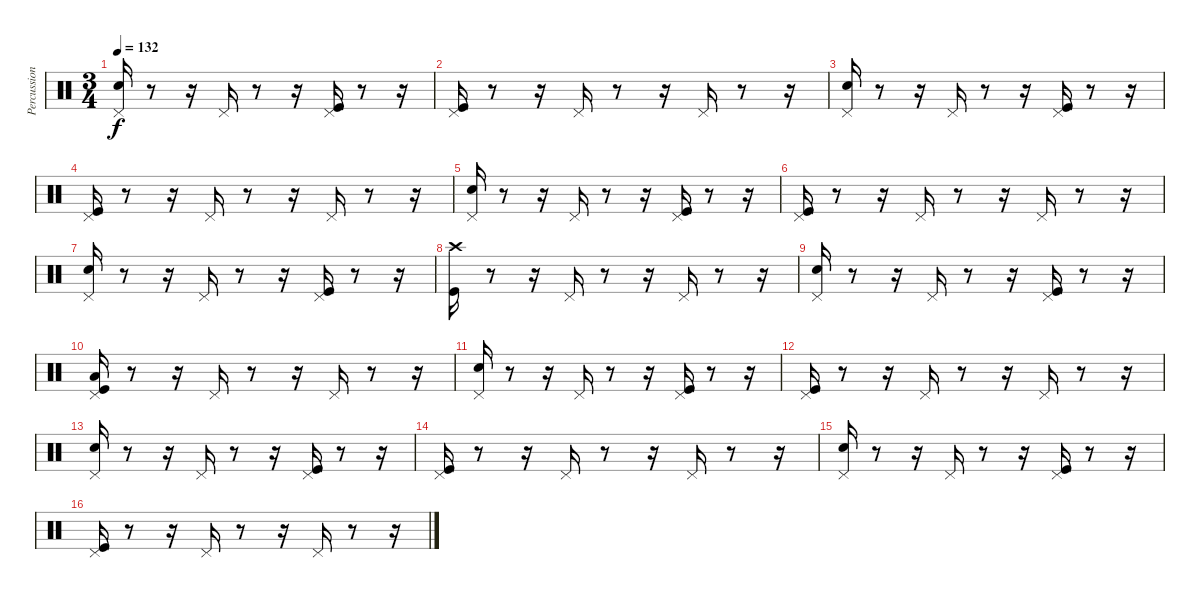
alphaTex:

\track ("Percussion" "Percussion") {instrument percussion}
\staff {score}
\articulation defaults
\ts (3 4)
\tempo 132
\clef neutral
\ks c
("Pedal Hi-Hat (hit)" "Snare (hit) 2").16{dy f} r.8 r.16 "Pedal Hi-Hat (hit)".16 r.8 r.16 ("Pedal Hi-Hat (hit)" "Kick (hit)").16 r.8 r.16 |
("Pedal Hi-Hat (hit)" "Kick (hit)").16 r.8 r.16 "Pedal Hi-Hat (hit)".16 r.8 r.16 "Pedal Hi-Hat (hit)".16 r.8 r.16 |
("Pedal Hi-Hat (hit)" "Snare (hit) 2").16 r.8 r.16 "Pedal Hi-Hat (hit)".16 r.8 r.16 ("Pedal Hi-Hat (hit)" "Kick (hit)").16 r.8 r.16 |
("Pedal Hi-Hat (hit)" "Kick (hit)").16 r.8 r.16 "Pedal Hi-Hat (hit)".16 r.8 r.16 "Pedal Hi-Hat (hit)".16 r.8 r.16 |
("Pedal Hi-Hat (hit)" "Snare (hit) 2").16 r.8 r.16 "Pedal Hi-Hat (hit)".16 r.8 r.16 ("Pedal Hi-Hat (hit)" "Kick (hit)").16 r.8 r.16 |
("Pedal Hi-Hat (hit)" "Kick (hit)").16 r.8 r.16 "Pedal Hi-Hat (hit)".16 r.8 r.16 "Pedal Hi-Hat (hit)".16 r.8 r.16 |
("Pedal Hi-Hat (hit)" "Snare (hit) 2").16 r.8 r.16 "Pedal Hi-Hat (hit)".16 r.8 r.16 ("Pedal Hi-Hat (hit)" "Kick (hit)").16 r.8 r.16 |
("Crash high (hit)" "Kick (hit)").16 r.8 r.16 "Pedal Hi-Hat (hit)".16 r.8 r.16 "Pedal Hi-Hat (hit)".16 r.8 r.16 |
("Pedal Hi-Hat (hit)" "Snare (hit) 2").16 r.8 r.16 "Pedal Hi-Hat (hit)".16 r.8 r.16 ("Pedal Hi-Hat (hit)" "Kick (hit)").16 r.8 r.16 |
("Pedal Hi-Hat (hit)" "Low Floor Tom (hit)" "Kick (hit)").16 r.8 r.16 "Pedal Hi-Hat (hit)".16 r.8 r.16 "Pedal Hi-Hat (hit)".16 r.8 r.16 |
("Pedal Hi-Hat (hit)" "Snare (hit) 2").16 r.8 r.16 "Pedal Hi-Hat (hit)".16 r.8 r.16 ("Pedal Hi-Hat (hit)" "Kick (hit)").16 r.8 r.16 |
("Pedal Hi-Hat (hit)" "Kick (hit)").16 r.8 r.16 "Pedal Hi-Hat (hit)".16 r.8 r.16 "Pedal Hi-Hat (hit)".16 r.8 r.16 |
("Pedal Hi-Hat (hit)" "Snare (hit) 2").16 r.8 r.16 "Pedal Hi-Hat (hit)".16 r.8 r.16 ("Pedal Hi-Hat (hit)" "Kick (hit)").16 r.8 r.16 |
("Pedal Hi-Hat (hit)" "Kick (hit)").16 r.8 r.16 "Pedal Hi-Hat (hit)".16 r.8 r.16 "Pedal Hi-Hat (hit)".16 r.8 r.16 |
("Pedal Hi-Hat (hit)" "Snare (hit) 2").16 r.8 r.16 "Pedal Hi-Hat (hit)".16 r.8 r.16 ("Pedal Hi-Hat (hit)" "Kick (hit)").16 r.8 r.16 |
("Pedal Hi-Hat (hit)" "Kick (hit)").16 r.8 r.16 "Pedal Hi-Hat (hit)".16 r.8 r.16 "Pedal Hi-Hat (hit)".16 r.8 r.16
